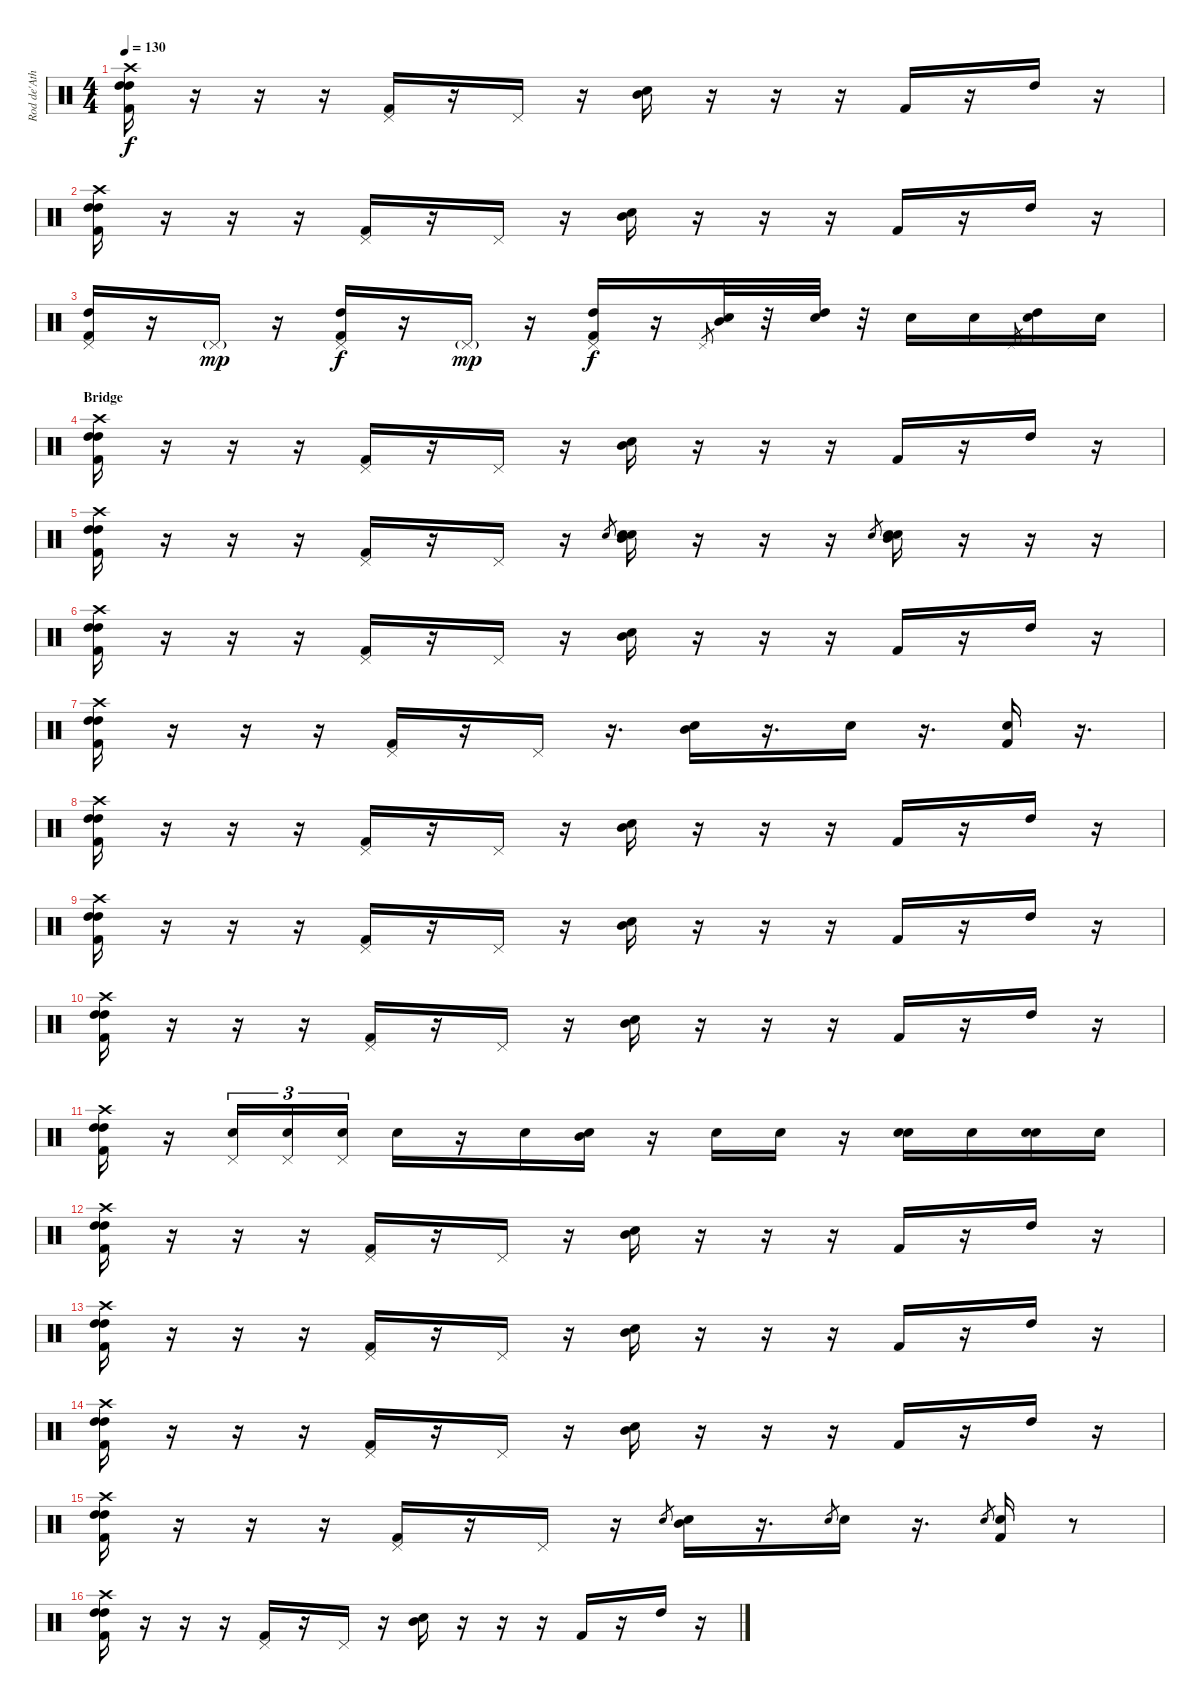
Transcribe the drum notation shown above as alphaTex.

\track ("Rod de'Ath" "Rod de'Ath") {instrument percussion}
\staff {score}
\articulation defaults
\ts (4 4)
\tempo 130
\clef neutral
\ks c
("Crash high (hit)" "High Tom (hit)" "High Tom (hit)" "Kick (hit) 2").16{dy f} r.16 r.16 r.16 ("Pedal Hi-Hat (hit)" "Kick (hit) 2").16 r.16 "Pedal Hi-Hat (hit)".16 r.16 ("Electric Snare (hit)" "Mid Tom (hit)").16 r.16 r.16 r.16 "Kick (hit) 2".16 r.16 "High Tom (hit)".16 r.16 |
("Crash high (hit)" "High Tom (hit)" "High Tom (hit)" "Kick (hit) 2").16 r.16 r.16 r.16 ("Pedal Hi-Hat (hit)" "Kick (hit) 2").16 r.16 "Pedal Hi-Hat (hit)".16 r.16 ("Electric Snare (hit)" "Mid Tom (hit)").16 r.16 r.16 r.16 "Kick (hit) 2".16 r.16 "High Tom (hit)".16 r.16 |
("Pedal Hi-Hat (hit)" "High Tom (hit)" "Kick (hit) 2").16 r.16 "Pedal Hi-Hat (hit)"{g}.16{dy mp} r.16 ("Pedal Hi-Hat (hit)" "High Tom (hit)" "Kick (hit) 2").16{dy f} r.16 "Pedal Hi-Hat (hit)"{g}.16{dy mp} r.16 ("Pedal Hi-Hat (hit)" "High Tom (hit)" "Kick (hit) 2").16{dy f} r.16 "Pedal Hi-Hat (hit)".8{gr} ("Mid Tom (hit)" "Electric Snare (hit)").32 r.32 ("High Tom (hit)" "Electric Snare (hit)").32 r.32 "Electric Snare (hit)".16 "Electric Snare (hit)".16 "Pedal Hi-Hat (hit)".8{gr} ("High Tom (hit)" "Electric Snare (hit)").16 "Electric Snare (hit)".16 |
\section ("" "Bridge")
("Crash high (hit)" "High Tom (hit)" "High Tom (hit)" "Kick (hit) 2").16 r.16 r.16 r.16 ("Pedal Hi-Hat (hit)" "Kick (hit) 2").16 r.16 "Pedal Hi-Hat (hit)".16 r.16 ("Electric Snare (hit)" "Mid Tom (hit)").16 r.16 r.16 r.16 "Kick (hit) 2".16 r.16 "High Tom (hit)".16 r.16 |
("Crash high (hit)" "High Tom (hit)" "High Tom (hit)" "Kick (hit) 2").16 r.16 r.16 r.16 ("Pedal Hi-Hat (hit)" "Kick (hit) 2").16 r.16 "Pedal Hi-Hat (hit)".16 r.16 "Electric Snare (hit)".8{gr} ("Electric Snare (hit)" "Mid Tom (hit)" "Snare (hit) 2").16 r.16 r.16 r.16 "Snare (hit) 2".8{gr} ("Electric Snare (hit)" "Mid Tom (hit)" "Snare (hit) 2").16 r.16 r.16 r.16 |
("Crash high (hit)" "High Tom (hit)" "High Tom (hit)" "Kick (hit) 2").16 r.16 r.16 r.16 ("Pedal Hi-Hat (hit)" "Kick (hit) 2").16 r.16 "Pedal Hi-Hat (hit)".16 r.16 ("Electric Snare (hit)" "Mid Tom (hit)").16 r.16 r.16 r.16 "Kick (hit) 2".16 r.16 "High Tom (hit)".16 r.16 |
("Crash high (hit)" "High Tom (hit)" "High Tom (hit)" "Kick (hit) 2").16 r.16 r.16 r.16 ("Pedal Hi-Hat (hit)" "Kick (hit) 2").16 r.16 "Pedal Hi-Hat (hit)".16 r.16{d} ("Electric Snare (hit)" "Mid Tom (hit)").16 r.16{d} "Electric Snare (hit)".16 r.16{d} ("Electric Snare (hit)" "Kick (hit) 2").16 r.16{d} |
("Crash high (hit)" "High Tom (hit)" "High Tom (hit)" "Kick (hit) 2").16 r.16 r.16 r.16 ("Pedal Hi-Hat (hit)" "Kick (hit) 2").16 r.16 "Pedal Hi-Hat (hit)".16 r.16 ("Electric Snare (hit)" "Mid Tom (hit)").16 r.16 r.16 r.16 "Kick (hit) 2".16 r.16 "High Tom (hit)".16 r.16 |
("Crash high (hit)" "High Tom (hit)" "High Tom (hit)" "Kick (hit) 2").16 r.16 r.16 r.16 ("Pedal Hi-Hat (hit)" "Kick (hit) 2").16 r.16 "Pedal Hi-Hat (hit)".16 r.16 ("Electric Snare (hit)" "Mid Tom (hit)").16 r.16 r.16 r.16 "Kick (hit) 2".16 r.16 "High Tom (hit)".16 r.16 |
("Crash high (hit)" "High Tom (hit)" "High Tom (hit)" "Kick (hit) 2").16 r.16 r.16 r.16 ("Pedal Hi-Hat (hit)" "Kick (hit) 2").16 r.16 "Pedal Hi-Hat (hit)".16 r.16 ("Electric Snare (hit)" "Mid Tom (hit)").16 r.16 r.16 r.16 "Kick (hit) 2".16 r.16 "High Tom (hit)".16 r.16 |
("Crash high (hit)" "High Tom (hit)" "High Tom (hit)" "Kick (hit) 2").16 r.16 ("Pedal Hi-Hat (hit)" "Snare (hit) 2").16{tu (3 2)} ("Pedal Hi-Hat (hit)" "Snare (hit) 2").16{tu (3 2)} ("Pedal Hi-Hat (hit)" "Snare (hit) 2").16{tu (3 2)} "Electric Snare (hit)".16 r.16 "Electric Snare (hit)".16 ("Electric Snare (hit)" "Mid Tom (hit)").16 r.16 "Electric Snare (hit)".16 "Electric Snare (hit)".16 r.16 ("Electric Snare (hit)" "Snare (hit) 2").16 "Snare (hit) 2".16 ("Electric Snare (hit)" "Snare (hit) 2").16 "Snare (hit) 2".16 |
("Crash high (hit)" "High Tom (hit)" "High Tom (hit)" "Kick (hit) 2").16 r.16 r.16 r.16 ("Pedal Hi-Hat (hit)" "Kick (hit) 2").16 r.16 "Pedal Hi-Hat (hit)".16 r.16 ("Electric Snare (hit)" "Mid Tom (hit)").16 r.16 r.16 r.16 "Kick (hit) 2".16 r.16 "High Tom (hit)".16 r.16 |
("Crash high (hit)" "High Tom (hit)" "High Tom (hit)" "Kick (hit) 2").16 r.16 r.16 r.16 ("Pedal Hi-Hat (hit)" "Kick (hit) 2").16 r.16 "Pedal Hi-Hat (hit)".16 r.16 ("Electric Snare (hit)" "Mid Tom (hit)").16 r.16 r.16 r.16 "Kick (hit) 2".16 r.16 "High Tom (hit)".16 r.16 |
("Crash high (hit)" "High Tom (hit)" "High Tom (hit)" "Kick (hit) 2").16 r.16 r.16 r.16 ("Pedal Hi-Hat (hit)" "Kick (hit) 2").16 r.16 "Pedal Hi-Hat (hit)".16 r.16 ("Electric Snare (hit)" "Mid Tom (hit)").16 r.16 r.16 r.16 "Kick (hit) 2".16 r.16 "High Tom (hit)".16 r.16 |
("Crash high (hit)" "High Tom (hit)" "High Tom (hit)" "Kick (hit) 2").16 r.16 r.16 r.16 ("Pedal Hi-Hat (hit)" "Kick (hit) 2").16 r.16 "Pedal Hi-Hat (hit)".16 r.16 "Electric Snare (hit)".8{gr} ("Electric Snare (hit)" "Mid Tom (hit)").16 r.16{d} "Electric Snare (hit)".8{gr} "Electric Snare (hit)".16 r.16{d} "Electric Snare (hit)".8{gr} ("Electric Snare (hit)" "Kick (hit) 2").16 r.8 |
("Crash high (hit)" "High Tom (hit)" "High Tom (hit)" "Kick (hit) 2").16 r.16 r.16 r.16 ("Pedal Hi-Hat (hit)" "Kick (hit) 2").16 r.16 "Pedal Hi-Hat (hit)".16 r.16 ("Electric Snare (hit)" "Mid Tom (hit)").16 r.16 r.16 r.16 "Kick (hit) 2".16 r.16 "High Tom (hit)".16 r.16
